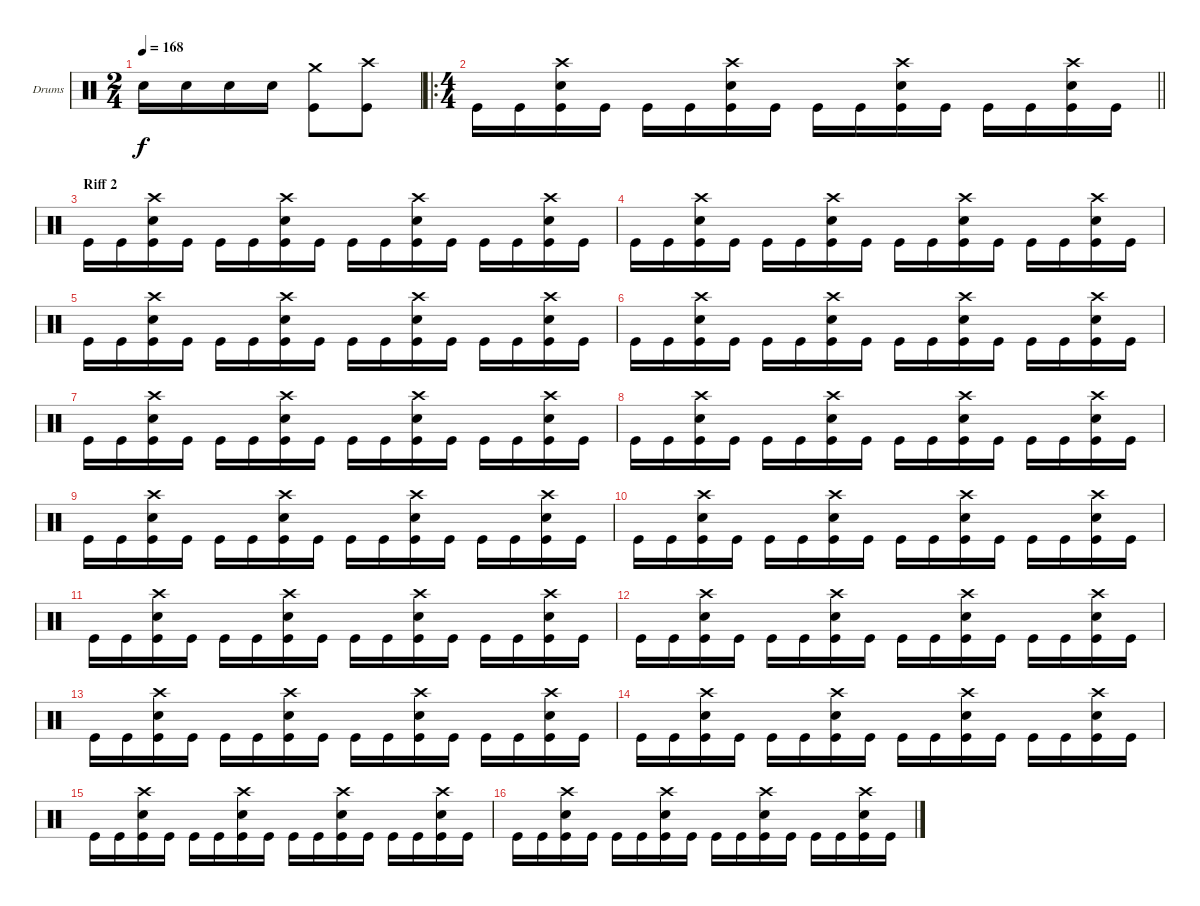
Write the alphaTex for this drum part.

\bracketExtendMode groupsimilarinstruments
\firstSystemTrackNameOrientation horizontal
\otherSystemsTrackNameOrientation horizontal
\track ("Drumkit" "Drums") {instrument percussion}
\staff {score}
\articulation defaults
\ts (2 4)
\beaming (8 2 2)
\tempo 168
\clef neutral
\ks c "Snare (hit) 2".16{dy f} "Snare (hit) 2".16 "Snare (hit) 2".16 "Snare (hit) 2".16
("Crash medium (hit)" "Kick (hit)").8 ("Crash high (hit)" "Kick (hit)").8 |
\ro
\ts (4 4)
\beaming (8 2 2 2 2)
\barLineRight lightlight "Kick (hit)".16 "Kick (hit)".16
("Crash high (hit)" "Snare (hit) 2" "Kick (hit)").16 "Kick (hit)".16 "Kick (hit)".16 "Kick (hit)".16 ("Crash high (hit)" "Snare (hit) 2" "Kick (hit)").16 "Kick (hit)".16 "Kick (hit)".16 "Kick (hit)".16 ("Crash high (hit)" "Snare (hit) 2" "Kick (hit)").16 "Kick (hit)".16 "Kick (hit)".16 "Kick (hit)".16 ("Crash high (hit)" "Snare (hit) 2" "Kick (hit)").16 "Kick (hit)".16 |
\section ("" "Riff 2")
"Kick (hit)".16 "Kick (hit)".16 ("Crash high (hit)" "Snare (hit) 2" "Kick (hit)").16 "Kick (hit)".16 "Kick (hit)".16 "Kick (hit)".16 ("Crash high (hit)" "Snare (hit) 2" "Kick (hit)").16 "Kick (hit)".16 "Kick (hit)".16 "Kick (hit)".16 ("Crash high (hit)" "Snare (hit) 2" "Kick (hit)").16 "Kick (hit)".16 "Kick (hit)".16 "Kick (hit)".16 ("Crash high (hit)" "Snare (hit) 2" "Kick (hit)").16 "Kick (hit)".16 |
"Kick (hit)".16 "Kick (hit)".16 ("Crash high (hit)" "Snare (hit) 2" "Kick (hit)").16 "Kick (hit)".16 "Kick (hit)".16 "Kick (hit)".16 ("Crash high (hit)" "Snare (hit) 2" "Kick (hit)").16 "Kick (hit)".16 "Kick (hit)".16 "Kick (hit)".16 ("Crash high (hit)" "Snare (hit) 2" "Kick (hit)").16 "Kick (hit)".16 "Kick (hit)".16 "Kick (hit)".16 ("Crash high (hit)" "Snare (hit) 2" "Kick (hit)").16 "Kick (hit)".16 |
"Kick (hit)".16 "Kick (hit)".16 ("Crash high (hit)" "Snare (hit) 2" "Kick (hit)").16 "Kick (hit)".16 "Kick (hit)".16 "Kick (hit)".16 ("Crash high (hit)" "Snare (hit) 2" "Kick (hit)").16 "Kick (hit)".16 "Kick (hit)".16 "Kick (hit)".16 ("Crash high (hit)" "Snare (hit) 2" "Kick (hit)").16 "Kick (hit)".16 "Kick (hit)".16 "Kick (hit)".16 ("Crash high (hit)" "Snare (hit) 2" "Kick (hit)").16 "Kick (hit)".16 |
"Kick (hit)".16 "Kick (hit)".16 ("Crash high (hit)" "Snare (hit) 2" "Kick (hit)").16 "Kick (hit)".16 "Kick (hit)".16 "Kick (hit)".16 ("Crash high (hit)" "Snare (hit) 2" "Kick (hit)").16 "Kick (hit)".16 "Kick (hit)".16 "Kick (hit)".16 ("Crash high (hit)" "Snare (hit) 2" "Kick (hit)").16 "Kick (hit)".16 "Kick (hit)".16 "Kick (hit)".16 ("Crash high (hit)" "Snare (hit) 2" "Kick (hit)").16 "Kick (hit)".16 |
"Kick (hit)".16 "Kick (hit)".16 ("Crash high (hit)" "Snare (hit) 2" "Kick (hit)").16 "Kick (hit)".16 "Kick (hit)".16 "Kick (hit)".16 ("Crash high (hit)" "Snare (hit) 2" "Kick (hit)").16 "Kick (hit)".16 "Kick (hit)".16 "Kick (hit)".16 ("Crash high (hit)" "Snare (hit) 2" "Kick (hit)").16 "Kick (hit)".16 "Kick (hit)".16 "Kick (hit)".16 ("Crash high (hit)" "Snare (hit) 2" "Kick (hit)").16 "Kick (hit)".16 |
"Kick (hit)".16 "Kick (hit)".16 ("Crash high (hit)" "Snare (hit) 2" "Kick (hit)").16 "Kick (hit)".16 "Kick (hit)".16 "Kick (hit)".16 ("Crash high (hit)" "Snare (hit) 2" "Kick (hit)").16 "Kick (hit)".16 "Kick (hit)".16 "Kick (hit)".16 ("Crash high (hit)" "Snare (hit) 2" "Kick (hit)").16 "Kick (hit)".16 "Kick (hit)".16 "Kick (hit)".16 ("Crash high (hit)" "Snare (hit) 2" "Kick (hit)").16 "Kick (hit)".16 |
"Kick (hit)".16 "Kick (hit)".16 ("Crash high (hit)" "Snare (hit) 2" "Kick (hit)").16 "Kick (hit)".16 "Kick (hit)".16 "Kick (hit)".16 ("Crash high (hit)" "Snare (hit) 2" "Kick (hit)").16 "Kick (hit)".16 "Kick (hit)".16 "Kick (hit)".16 ("Crash high (hit)" "Snare (hit) 2" "Kick (hit)").16 "Kick (hit)".16 "Kick (hit)".16 "Kick (hit)".16 ("Crash high (hit)" "Snare (hit) 2" "Kick (hit)").16 "Kick (hit)".16 |
"Kick (hit)".16 "Kick (hit)".16 ("Crash high (hit)" "Snare (hit) 2" "Kick (hit)").16 "Kick (hit)".16 "Kick (hit)".16 "Kick (hit)".16 ("Crash high (hit)" "Snare (hit) 2" "Kick (hit)").16 "Kick (hit)".16 "Kick (hit)".16 "Kick (hit)".16 ("Crash high (hit)" "Snare (hit) 2" "Kick (hit)").16 "Kick (hit)".16 "Kick (hit)".16 "Kick (hit)".16 ("Crash high (hit)" "Snare (hit) 2" "Kick (hit)").16 "Kick (hit)".16 |
"Kick (hit)".16 "Kick (hit)".16 ("Crash high (hit)" "Snare (hit) 2" "Kick (hit)").16 "Kick (hit)".16 "Kick (hit)".16 "Kick (hit)".16 ("Crash high (hit)" "Snare (hit) 2" "Kick (hit)").16 "Kick (hit)".16 "Kick (hit)".16 "Kick (hit)".16 ("Crash high (hit)" "Snare (hit) 2" "Kick (hit)").16 "Kick (hit)".16 "Kick (hit)".16 "Kick (hit)".16 ("Crash high (hit)" "Snare (hit) 2" "Kick (hit)").16 "Kick (hit)".16 |
"Kick (hit)".16 "Kick (hit)".16 ("Crash high (hit)" "Snare (hit) 2" "Kick (hit)").16 "Kick (hit)".16 "Kick (hit)".16 "Kick (hit)".16 ("Crash high (hit)" "Snare (hit) 2" "Kick (hit)").16 "Kick (hit)".16 "Kick (hit)".16 "Kick (hit)".16 ("Crash high (hit)" "Snare (hit) 2" "Kick (hit)").16 "Kick (hit)".16 "Kick (hit)".16 "Kick (hit)".16 ("Crash high (hit)" "Snare (hit) 2" "Kick (hit)").16 "Kick (hit)".16 |
"Kick (hit)".16 "Kick (hit)".16 ("Crash high (hit)" "Snare (hit) 2" "Kick (hit)").16 "Kick (hit)".16 "Kick (hit)".16 "Kick (hit)".16 ("Crash high (hit)" "Snare (hit) 2" "Kick (hit)").16 "Kick (hit)".16 "Kick (hit)".16 "Kick (hit)".16 ("Crash high (hit)" "Snare (hit) 2" "Kick (hit)").16 "Kick (hit)".16 "Kick (hit)".16 "Kick (hit)".16 ("Crash high (hit)" "Snare (hit) 2" "Kick (hit)").16 "Kick (hit)".16 |
"Kick (hit)".16 "Kick (hit)".16 ("Crash high (hit)" "Snare (hit) 2" "Kick (hit)").16 "Kick (hit)".16 "Kick (hit)".16 "Kick (hit)".16 ("Crash high (hit)" "Snare (hit) 2" "Kick (hit)").16 "Kick (hit)".16 "Kick (hit)".16 "Kick (hit)".16 ("Crash high (hit)" "Snare (hit) 2" "Kick (hit)").16 "Kick (hit)".16 "Kick (hit)".16 "Kick (hit)".16 ("Crash high (hit)" "Snare (hit) 2" "Kick (hit)").16 "Kick (hit)".16 |
"Kick (hit)".16 "Kick (hit)".16 ("Crash high (hit)" "Snare (hit) 2" "Kick (hit)").16 "Kick (hit)".16 "Kick (hit)".16 "Kick (hit)".16 ("Crash high (hit)" "Snare (hit) 2" "Kick (hit)").16 "Kick (hit)".16 "Kick (hit)".16 "Kick (hit)".16 ("Crash high (hit)" "Snare (hit) 2" "Kick (hit)").16 "Kick (hit)".16 "Kick (hit)".16 "Kick (hit)".16 ("Crash high (hit)" "Snare (hit) 2" "Kick (hit)").16 "Kick (hit)".16 |
"Kick (hit)".16 "Kick (hit)".16 ("Crash high (hit)" "Snare (hit) 2" "Kick (hit)").16 "Kick (hit)".16 "Kick (hit)".16 "Kick (hit)".16 ("Crash high (hit)" "Snare (hit) 2" "Kick (hit)").16 "Kick (hit)".16 "Kick (hit)".16 "Kick (hit)".16 ("Crash high (hit)" "Snare (hit) 2" "Kick (hit)").16 "Kick (hit)".16 "Kick (hit)".16 "Kick (hit)".16 ("Crash high (hit)" "Snare (hit) 2" "Kick (hit)").16 "Kick (hit)".16
